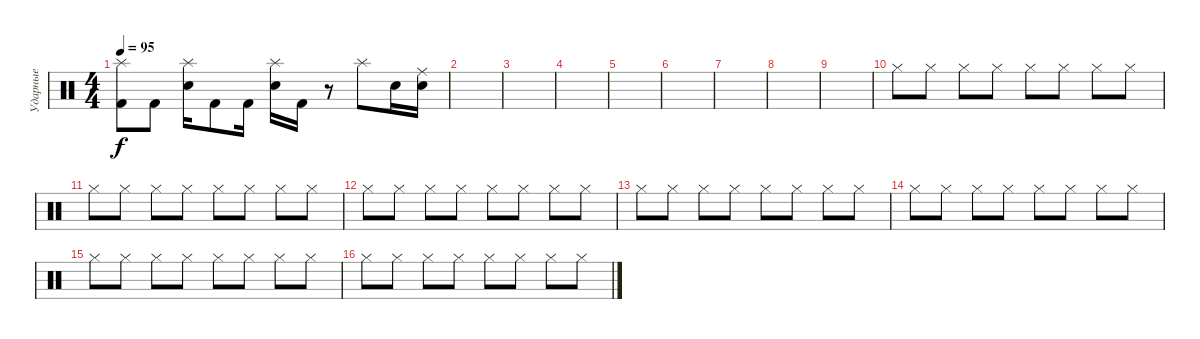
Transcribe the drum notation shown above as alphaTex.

\track ("Ударные" "Ударные") {instrument percussion}
\staff {score}
\articulation defaults
\ts (4 4)
\tempo 95
\clef neutral
\ks c
("Splash (hit)" "Kick (hit) 2").8{dy f} "Kick (hit) 2".8 ("Splash (hit)" "Electric Snare (hit)").16 "Kick (hit) 2".8 "Kick (hit) 2".16 ("Splash (hit)" "Electric Snare (hit)").16 "Kick (hit) 2".16 r.8 "Splash (hit)".8 "Electric Snare (hit)".16 ("Ride (middle)" "Electric Snare (hit)").16 |
|
|
|
|
|
|
|
|
"Hi-Hat (closed)".8{volume 5} "Hi-Hat (closed)".8{volume 7} "Hi-Hat (closed)".8{volume 8} "Hi-Hat (closed)".8{volume 9} "Hi-Hat (closed)".8{volume 10} "Hi-Hat (closed)".8{volume 11} "Hi-Hat (closed)".8{volume 13} "Hi-Hat (closed)".8{volume 14} |
"Hi-Hat (closed)".8 "Hi-Hat (closed)".8 "Hi-Hat (closed)".8 "Hi-Hat (closed)".8 "Hi-Hat (closed)".8 "Hi-Hat (closed)".8 "Hi-Hat (closed)".8 "Hi-Hat (closed)".8 |
"Hi-Hat (closed)".8 "Hi-Hat (closed)".8 "Hi-Hat (closed)".8 "Hi-Hat (closed)".8 "Hi-Hat (closed)".8 "Hi-Hat (closed)".8 "Hi-Hat (closed)".8 "Hi-Hat (closed)".8 |
"Hi-Hat (closed)".8 "Hi-Hat (closed)".8 "Hi-Hat (closed)".8 "Hi-Hat (closed)".8 "Hi-Hat (closed)".8 "Hi-Hat (closed)".8 "Hi-Hat (closed)".8 "Hi-Hat (closed)".8 |
"Hi-Hat (closed)".8 "Hi-Hat (closed)".8 "Hi-Hat (closed)".8 "Hi-Hat (closed)".8 "Hi-Hat (closed)".8 "Hi-Hat (closed)".8 "Hi-Hat (closed)".8 "Hi-Hat (closed)".8 |
"Hi-Hat (closed)".8 "Hi-Hat (closed)".8 "Hi-Hat (closed)".8 "Hi-Hat (closed)".8 "Hi-Hat (closed)".8 "Hi-Hat (closed)".8 "Hi-Hat (closed)".8 "Hi-Hat (closed)".8 |
"Hi-Hat (closed)".8 "Hi-Hat (closed)".8 "Hi-Hat (closed)".8 "Hi-Hat (closed)".8 "Hi-Hat (closed)".8 "Hi-Hat (closed)".8 "Hi-Hat (closed)".8 "Hi-Hat (closed)".8
